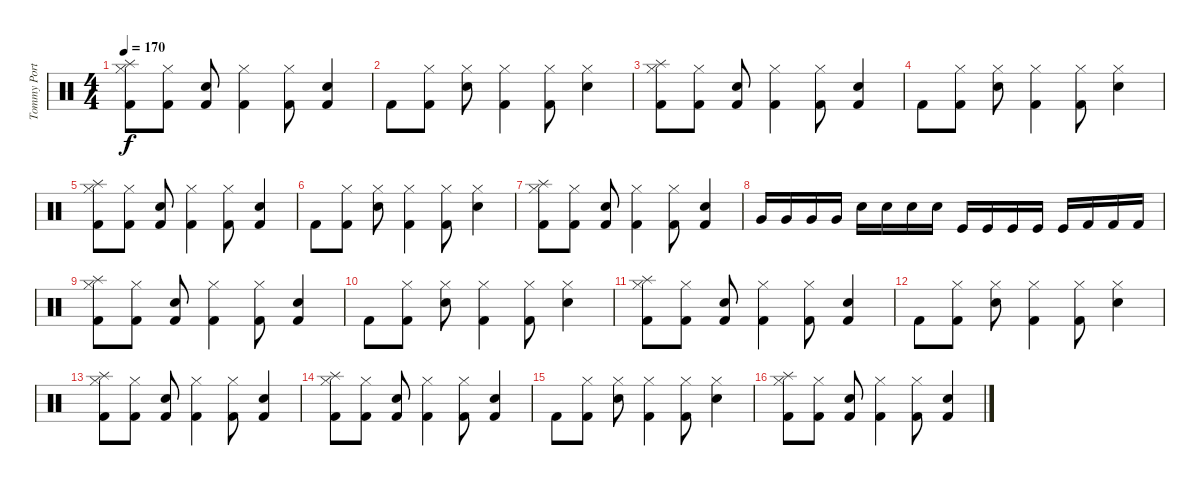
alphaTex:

\track ("Tommy Portimo" "Tommy Port") {instrument percussion}
\staff {score}
\articulation defaults
\ts (4 4)
\tempo 170
\clef neutral
\ks c
("Splash (hit)" "Kick (hit) 2" "Hi-Hat (closed)").8{dy f} ("Kick (hit) 2" "Hi-Hat (closed)").8 ("Electric Snare (hit)" "Kick (hit) 2").8 ("Kick (hit) 2" "Hi-Hat (closed)").4 ("Kick (hit) 2" "Hi-Hat (closed)").8 ("Electric Snare (hit)" "Kick (hit) 2").4 |
"Kick (hit) 2".8 ("Kick (hit) 2" "Hi-Hat (closed)").8 ("Electric Snare (hit)" "Hi-Hat (closed)").8 ("Kick (hit) 2" "Hi-Hat (closed)").4 ("Kick (hit) 2" "Hi-Hat (closed)").8 ("Electric Snare (hit)" "Hi-Hat (closed)").4 |
("Splash (hit)" "Kick (hit) 2" "Hi-Hat (closed)").8 ("Kick (hit) 2" "Hi-Hat (closed)").8 ("Electric Snare (hit)" "Kick (hit) 2").8 ("Kick (hit) 2" "Hi-Hat (closed)").4 ("Kick (hit) 2" "Hi-Hat (closed)").8 ("Electric Snare (hit)" "Kick (hit) 2").4 |
"Kick (hit) 2".8 ("Kick (hit) 2" "Hi-Hat (closed)").8 ("Electric Snare (hit)" "Hi-Hat (closed)").8 ("Kick (hit) 2" "Hi-Hat (closed)").4 ("Kick (hit) 2" "Hi-Hat (closed)").8 ("Electric Snare (hit)" "Hi-Hat (closed)").4 |
("Splash (hit)" "Kick (hit) 2" "Hi-Hat (closed)").8 ("Kick (hit) 2" "Hi-Hat (closed)").8 ("Electric Snare (hit)" "Kick (hit) 2").8 ("Kick (hit) 2" "Hi-Hat (closed)").4 ("Kick (hit) 2" "Hi-Hat (closed)").8 ("Electric Snare (hit)" "Kick (hit) 2").4 |
"Kick (hit) 2".8 ("Kick (hit) 2" "Hi-Hat (closed)").8 ("Electric Snare (hit)" "Hi-Hat (closed)").8 ("Kick (hit) 2" "Hi-Hat (closed)").4 ("Kick (hit) 2" "Hi-Hat (closed)").8 ("Electric Snare (hit)" "Hi-Hat (closed)").4 |
("Splash (hit)" "Kick (hit) 2" "Hi-Hat (closed)").8 ("Kick (hit) 2" "Hi-Hat (closed)").8 ("Electric Snare (hit)" "Kick (hit) 2").8 ("Kick (hit) 2" "Hi-Hat (closed)").4 ("Kick (hit) 2" "Hi-Hat (closed)").8 ("Electric Snare (hit)" "Kick (hit) 2").4 |
"Very Low Tom (hit)".16 "Very Low Tom (hit)".16 "Very Low Tom (hit)".16 "Very Low Tom (hit)".16 "Electric Snare (hit)".16 "Electric Snare (hit)".16 "Electric Snare (hit)".16 "Electric Snare (hit)".16 "Kick (hit)".16 "Kick (hit)".16 "Kick (hit)".16 "Kick (hit)".16 "Kick (hit)".16 "Kick (hit) 2".16 "Kick (hit) 2".16 "Kick (hit) 2".16 |
("Splash (hit)" "Kick (hit) 2" "Hi-Hat (closed)").8 ("Kick (hit) 2" "Hi-Hat (closed)").8 ("Electric Snare (hit)" "Kick (hit) 2").8 ("Kick (hit) 2" "Hi-Hat (closed)").4 ("Kick (hit) 2" "Hi-Hat (closed)").8 ("Electric Snare (hit)" "Kick (hit) 2").4 |
"Kick (hit) 2".8 ("Kick (hit) 2" "Hi-Hat (closed)").8 ("Electric Snare (hit)" "Hi-Hat (closed)").8 ("Kick (hit) 2" "Hi-Hat (closed)").4 ("Kick (hit) 2" "Hi-Hat (closed)").8 ("Electric Snare (hit)" "Hi-Hat (closed)").4 |
("Splash (hit)" "Kick (hit) 2" "Hi-Hat (closed)").8 ("Kick (hit) 2" "Hi-Hat (closed)").8 ("Electric Snare (hit)" "Kick (hit) 2").8 ("Kick (hit) 2" "Hi-Hat (closed)").4 ("Kick (hit) 2" "Hi-Hat (closed)").8 ("Electric Snare (hit)" "Kick (hit) 2").4 |
"Kick (hit) 2".8 ("Kick (hit) 2" "Hi-Hat (closed)").8 ("Electric Snare (hit)" "Hi-Hat (closed)").8 ("Kick (hit) 2" "Hi-Hat (closed)").4 ("Kick (hit) 2" "Hi-Hat (closed)").8 ("Electric Snare (hit)" "Hi-Hat (closed)").4 |
("Splash (hit)" "Kick (hit) 2" "Hi-Hat (closed)").8 ("Kick (hit) 2" "Hi-Hat (closed)").8 ("Electric Snare (hit)" "Kick (hit) 2").8 ("Kick (hit) 2" "Hi-Hat (closed)").4 ("Kick (hit) 2" "Hi-Hat (closed)").8 ("Electric Snare (hit)" "Kick (hit) 2").4 |
("Splash (hit)" "Kick (hit) 2" "Hi-Hat (closed)").8 ("Kick (hit) 2" "Hi-Hat (closed)").8 ("Electric Snare (hit)" "Kick (hit) 2").8 ("Kick (hit) 2" "Hi-Hat (closed)").4 ("Kick (hit) 2" "Hi-Hat (closed)").8 ("Electric Snare (hit)" "Kick (hit) 2").4 |
"Kick (hit) 2".8 ("Kick (hit) 2" "Hi-Hat (closed)").8 ("Electric Snare (hit)" "Hi-Hat (closed)").8 ("Kick (hit) 2" "Hi-Hat (closed)").4 ("Kick (hit) 2" "Hi-Hat (closed)").8 ("Electric Snare (hit)" "Hi-Hat (closed)").4 |
("Splash (hit)" "Kick (hit) 2" "Hi-Hat (closed)").8 ("Kick (hit) 2" "Hi-Hat (closed)").8 ("Electric Snare (hit)" "Kick (hit) 2").8 ("Kick (hit) 2" "Hi-Hat (closed)").4 ("Kick (hit) 2" "Hi-Hat (closed)").8 ("Electric Snare (hit)" "Kick (hit) 2").4
